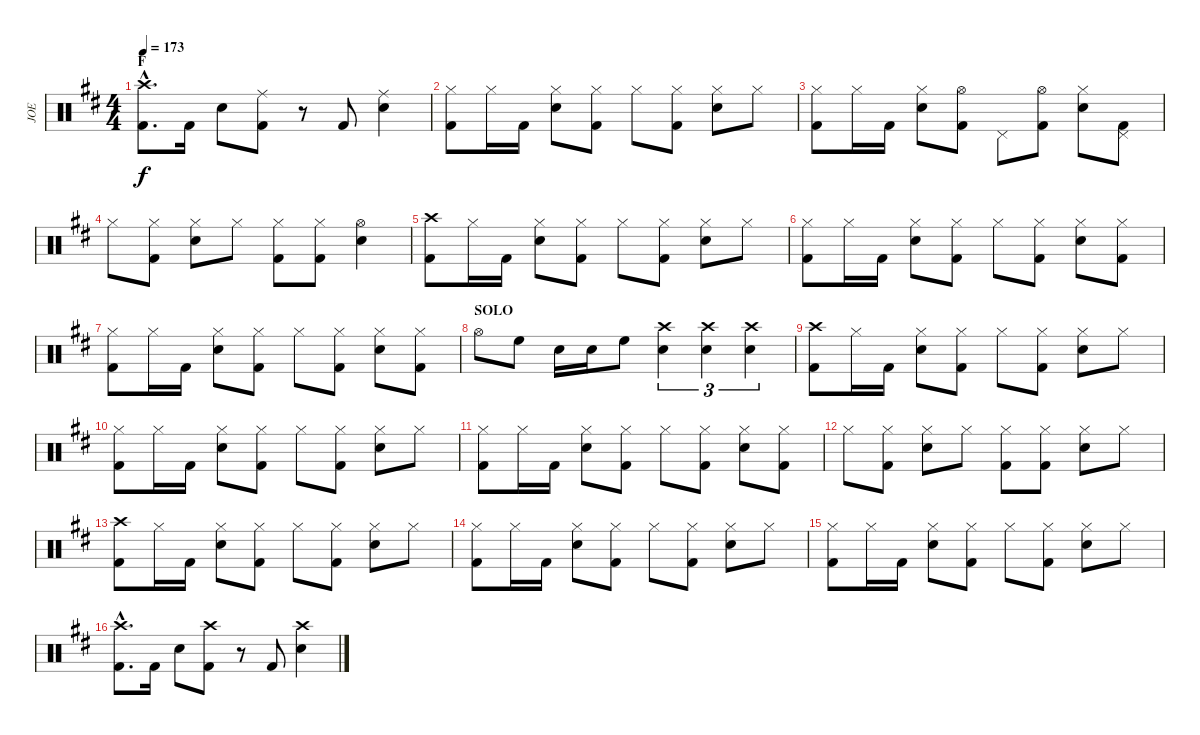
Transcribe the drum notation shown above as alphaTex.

\track ("JOE" "JOE") {instrument percussion}
\staff {score}
\articulation defaults
\ts (4 4)
\section ("" "F")
\tempo 173
\clef neutral
\ks bminor
("Crash high (hit)"{hac} "Kick (hit) 2"{hac}).8{d dy f} "Kick (hit) 2".16 "Snare (hit) 2".8 ("Ride (middle)" "Kick (hit) 2").8 r.8 "Kick (hit) 2".8 ("Ride (middle)" "Snare (hit) 2").4 |
("Hi-Hat (closed)" "Kick (hit) 2").8 "Hi-Hat (closed)".16 "Kick (hit) 2".16 ("Hi-Hat (closed)" "Snare (hit) 2").8 ("Hi-Hat (closed)" "Kick (hit) 2").8 "Hi-Hat (closed)".8 ("Hi-Hat (closed)" "Kick (hit) 2").8 ("Hi-Hat (closed)" "Snare (hit) 2").8 "Hi-Hat (closed)".8 |
("Hi-Hat (closed)" "Kick (hit) 2").8 "Hi-Hat (closed)".16 "Kick (hit) 2".16 ("Hi-Hat (closed)" "Snare (hit) 2").8 ("Hi-Hat (open)" "Kick (hit) 2").8 "Pedal Hi-Hat (hit)".8 ("Hi-Hat (open)" "Kick (hit) 2").8 ("Hi-Hat (closed)" "Snare (hit) 2").8 ("Pedal Hi-Hat (hit)" "Kick (hit) 2").8 |
"Hi-Hat (closed)".8 ("Hi-Hat (closed)" "Kick (hit) 2").8 ("Hi-Hat (closed)" "Snare (hit) 2").8 "Hi-Hat (closed)".8 ("Hi-Hat (closed)" "Kick (hit) 2").8 ("Hi-Hat (closed)" "Kick (hit) 2").8 ("Hi-Hat (open)" "Snare (hit) 2").4 |
("Crash high (hit)" "Kick (hit) 2").8 "Hi-Hat (closed)".16 "Kick (hit) 2".16 ("Hi-Hat (closed)" "Snare (hit) 2").8 ("Hi-Hat (closed)" "Kick (hit) 2").8 "Hi-Hat (closed)".8 ("Hi-Hat (closed)" "Kick (hit) 2").8 ("Hi-Hat (closed)" "Snare (hit) 2").8 "Hi-Hat (closed)".8 |
("Hi-Hat (closed)" "Kick (hit) 2").8 "Hi-Hat (closed)".16 "Kick (hit) 2".16 ("Hi-Hat (closed)" "Snare (hit) 2").8 ("Hi-Hat (closed)" "Kick (hit) 2").8 "Hi-Hat (closed)".8 ("Hi-Hat (closed)" "Kick (hit) 2").8 ("Hi-Hat (closed)" "Snare (hit) 2").8 ("Hi-Hat (closed)" "Kick (hit) 2").8 |
("Hi-Hat (closed)" "Kick (hit) 2").8 "Hi-Hat (closed)".16 "Kick (hit) 2".16 ("Hi-Hat (closed)" "Snare (hit) 2").8 ("Hi-Hat (closed)" "Kick (hit) 2").8 "Hi-Hat (closed)".8 ("Hi-Hat (closed)" "Kick (hit) 2").8 ("Hi-Hat (closed)" "Snare (hit) 2").8 ("Hi-Hat (closed)" "Kick (hit) 2").8 |
\section ("" "SOLO")
"Hi-Hat (open)".8 "High Floor Tom (hit)".8 "Snare (hit) 2".16 "Snare (hit) 2".16 "High Floor Tom (hit)".8 ("Crash high (hit)" "Snare (hit) 2").4{tu (3 2)} ("Crash high (hit)" "Snare (hit) 2").4{tu (3 2)} ("Crash high (hit)" "Snare (hit) 2").4{tu (3 2)} |
("Crash high (hit)" "Kick (hit) 2").8 "Hi-Hat (closed)".16 "Kick (hit) 2".16 ("Hi-Hat (closed)" "Snare (hit) 2").8 ("Hi-Hat (closed)" "Kick (hit) 2").8 "Hi-Hat (closed)".8 ("Hi-Hat (closed)" "Kick (hit) 2").8 ("Hi-Hat (closed)" "Snare (hit) 2").8 "Hi-Hat (closed)".8 |
("Hi-Hat (closed)" "Kick (hit) 2").8 "Hi-Hat (closed)".16 "Kick (hit) 2".16 ("Hi-Hat (closed)" "Snare (hit) 2").8 ("Hi-Hat (closed)" "Kick (hit) 2").8 "Hi-Hat (closed)".8 ("Hi-Hat (closed)" "Kick (hit) 2").8 ("Hi-Hat (closed)" "Snare (hit) 2").8 "Hi-Hat (closed)".8 |
("Hi-Hat (closed)" "Kick (hit) 2").8 "Hi-Hat (closed)".16 "Kick (hit) 2".16 ("Hi-Hat (closed)" "Snare (hit) 2").8 ("Hi-Hat (closed)" "Kick (hit) 2").8 "Hi-Hat (closed)".8 ("Hi-Hat (closed)" "Kick (hit) 2").8 ("Hi-Hat (closed)" "Snare (hit) 2").8 ("Hi-Hat (closed)" "Kick (hit) 2").8 |
"Hi-Hat (closed)".8 ("Hi-Hat (closed)" "Kick (hit) 2").8 ("Hi-Hat (closed)" "Snare (hit) 2").8 "Hi-Hat (closed)".8 ("Hi-Hat (closed)" "Kick (hit) 2").8 ("Hi-Hat (closed)" "Kick (hit) 2").8 ("Hi-Hat (closed)" "Snare (hit) 2").8 "Hi-Hat (closed)".8 |
("Crash high (hit)" "Kick (hit) 2").8 "Hi-Hat (closed)".16 "Kick (hit) 2".16 ("Hi-Hat (closed)" "Snare (hit) 2").8 ("Hi-Hat (closed)" "Kick (hit) 2").8 "Hi-Hat (closed)".8 ("Hi-Hat (closed)" "Kick (hit) 2").8 ("Hi-Hat (closed)" "Snare (hit) 2").8 "Hi-Hat (closed)".8 |
("Hi-Hat (closed)" "Kick (hit) 2").8 "Hi-Hat (closed)".16 "Kick (hit) 2".16 ("Hi-Hat (closed)" "Snare (hit) 2").8 ("Hi-Hat (closed)" "Kick (hit) 2").8 "Hi-Hat (closed)".8 ("Hi-Hat (closed)" "Kick (hit) 2").8 ("Hi-Hat (closed)" "Snare (hit) 2").8 "Hi-Hat (closed)".8 |
("Hi-Hat (closed)" "Kick (hit) 2").8 "Hi-Hat (closed)".16 "Kick (hit) 2".16 ("Hi-Hat (closed)" "Snare (hit) 2").8 ("Hi-Hat (closed)" "Kick (hit) 2").8 "Hi-Hat (closed)".8 ("Hi-Hat (closed)" "Kick (hit) 2").8 ("Hi-Hat (closed)" "Snare (hit) 2").8 "Hi-Hat (closed)".8 |
("Crash high (hit)"{hac} "Kick (hit) 2"{hac}).8{d} "Kick (hit) 2".16 "Snare (hit) 2".8 ("Crash high (hit)" "Kick (hit) 2").8 r.8 "Kick (hit) 2".8 ("Crash high (hit)" "Snare (hit) 2").4
